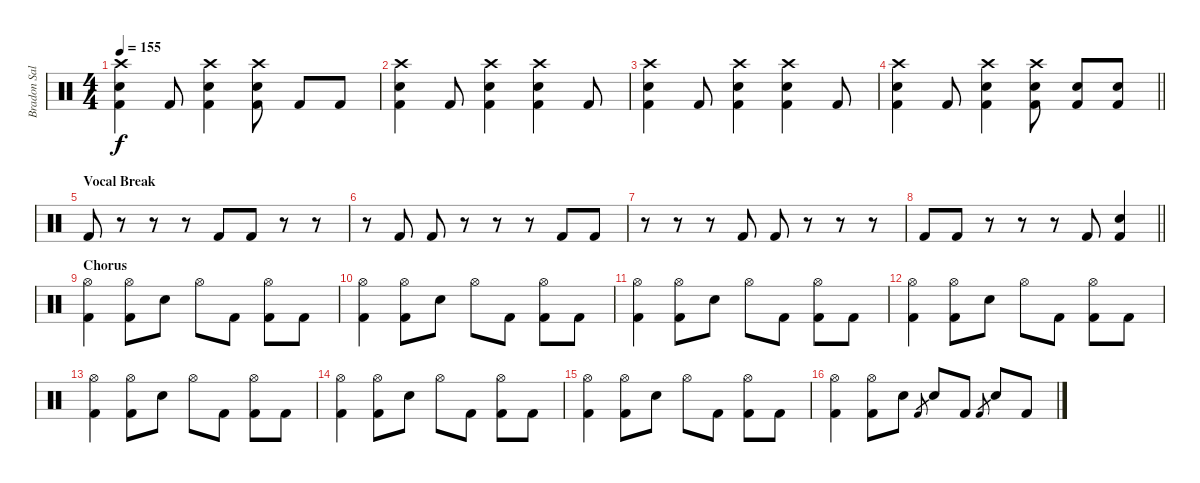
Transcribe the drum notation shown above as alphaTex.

\track ("Bradon Saller" "Bradon Sal") {instrument percussion}
\staff {score}
\articulation defaults
\ts (4 4)
\tempo 155
\clef neutral
\ks c
("Crash high (hit)" "Electric Snare (hit)" "Kick (hit) 2").4{dy f} "Kick (hit) 2".8 ("Crash high (hit)" "Electric Snare (hit)" "Kick (hit) 2").4 ("Crash high (hit)" "Electric Snare (hit)" "Kick (hit) 2").8 "Kick (hit) 2".8 "Kick (hit) 2".8 |
("Crash high (hit)" "Electric Snare (hit)" "Kick (hit) 2").4 "Kick (hit) 2".8 ("Crash high (hit)" "Electric Snare (hit)" "Kick (hit) 2").4 ("Crash high (hit)" "Electric Snare (hit)" "Kick (hit) 2").4 "Kick (hit) 2".8 |
("Crash high (hit)" "Electric Snare (hit)" "Kick (hit) 2").4 "Kick (hit) 2".8 ("Crash high (hit)" "Electric Snare (hit)" "Kick (hit) 2").4 ("Crash high (hit)" "Electric Snare (hit)" "Kick (hit) 2").4 "Kick (hit) 2".8 |
\barLineRight lightlight
("Crash high (hit)" "Electric Snare (hit)" "Kick (hit) 2").4 "Kick (hit) 2".8 ("Crash high (hit)" "Electric Snare (hit)" "Kick (hit) 2").4 ("Crash high (hit)" "Electric Snare (hit)" "Kick (hit) 2").8 ("Electric Snare (hit)" "Kick (hit) 2").8 ("Electric Snare (hit)" "Kick (hit) 2").8 |
\section ("" "Vocal Break")
"Kick (hit) 2".8 r.8 r.8 r.8 "Kick (hit) 2".8 "Kick (hit) 2".8 r.8 r.8 |
r.8 "Kick (hit) 2".8 "Kick (hit) 2".8 r.8 r.8 r.8 "Kick (hit) 2".8 "Kick (hit) 2".8 |
r.8 r.8 r.8 "Kick (hit) 2".8 "Kick (hit) 2".8 r.8 r.8 r.8 |
\barLineRight lightlight "Kick (hit) 2".8 "Kick (hit) 2".8
r.8 r.8 r.8 "Kick (hit) 2".8 ("Electric Snare (hit)" "Kick (hit) 2").4 |
\section ("" "Chorus")
("Hi-Hat (open)" "Kick (hit) 2").4 ("Hi-Hat (open)" "Kick (hit) 2").8 "Electric Snare (hit)".8 "Hi-Hat (open)".8 "Kick (hit) 2".8 ("Hi-Hat (open)" "Kick (hit) 2").8 "Kick (hit) 2".8 |
("Hi-Hat (open)" "Kick (hit) 2").4 ("Hi-Hat (open)" "Kick (hit) 2").8 "Electric Snare (hit)".8 "Hi-Hat (open)".8 "Kick (hit) 2".8 ("Hi-Hat (open)" "Kick (hit) 2").8 "Kick (hit) 2".8 |
("Hi-Hat (open)" "Kick (hit) 2").4 ("Hi-Hat (open)" "Kick (hit) 2").8 "Electric Snare (hit)".8 "Hi-Hat (open)".8 "Kick (hit) 2".8 ("Hi-Hat (open)" "Kick (hit) 2").8 "Kick (hit) 2".8 |
("Hi-Hat (open)" "Kick (hit) 2").4 ("Hi-Hat (open)" "Kick (hit) 2").8 "Electric Snare (hit)".8 "Hi-Hat (open)".8 "Kick (hit) 2".8 ("Hi-Hat (open)" "Kick (hit) 2").8 "Kick (hit) 2".8 |
("Hi-Hat (open)" "Kick (hit) 2").4 ("Hi-Hat (open)" "Kick (hit) 2").8 "Electric Snare (hit)".8 "Hi-Hat (open)".8 "Kick (hit) 2".8 ("Hi-Hat (open)" "Kick (hit) 2").8 "Kick (hit) 2".8 |
("Hi-Hat (open)" "Kick (hit) 2").4 ("Hi-Hat (open)" "Kick (hit) 2").8 "Electric Snare (hit)".8 "Hi-Hat (open)".8 "Kick (hit) 2".8 ("Hi-Hat (open)" "Kick (hit) 2").8 "Kick (hit) 2".8 |
("Hi-Hat (open)" "Kick (hit) 2").4 ("Hi-Hat (open)" "Kick (hit) 2").8 "Electric Snare (hit)".8 "Hi-Hat (open)".8 "Kick (hit) 2".8 ("Hi-Hat (open)" "Kick (hit) 2").8 "Kick (hit) 2".8 |
("Hi-Hat (open)" "Kick (hit) 2").4 ("Hi-Hat (open)" "Kick (hit) 2").8 "Electric Snare (hit)".8 "Kick (hit) 2".8{gr} "Electric Snare (hit)".8 "Kick (hit) 2".8 "Kick (hit) 2".8{gr} "Electric Snare (hit)".8 "Kick (hit) 2".8
